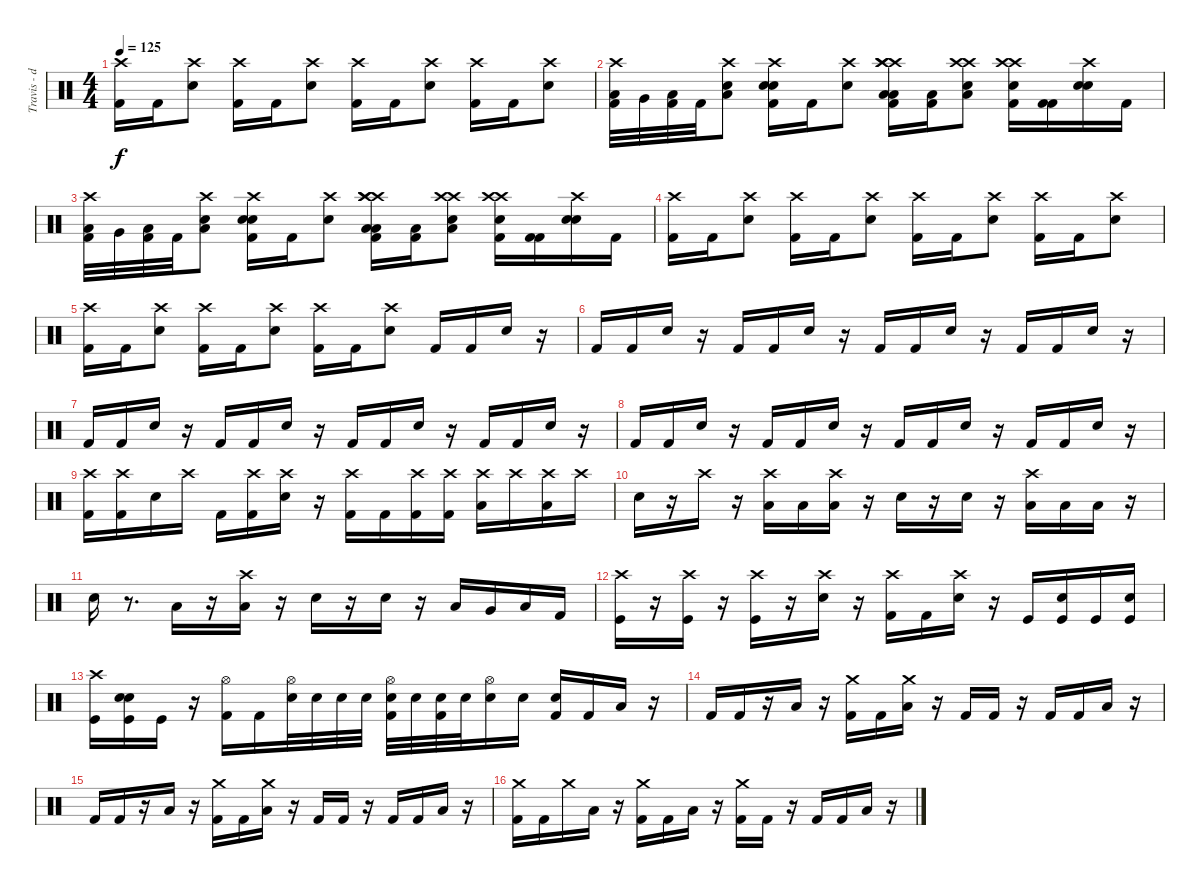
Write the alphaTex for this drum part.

\track ("Travis - drums" "Travis - d") {instrument percussion}
\staff {score}
\articulation defaults
\ts (4 4)
\tempo 125
\clef neutral
\ks c
("Crash high (hit)" "Kick (hit) 2").16{dy f} "Kick (hit) 2".16 ("Crash high (hit)" "Electric Snare (hit)").8 ("Crash high (hit)" "Kick (hit) 2").16 "Kick (hit) 2".16 ("Crash high (hit)" "Snare (hit) 2").8 ("Crash high (hit)" "Kick (hit) 2").16 "Kick (hit) 2".16 ("Crash high (hit)" "Electric Snare (hit)").8 ("Kick (hit) 2" "Crash high (hit)").16 "Kick (hit) 2".16 ("Electric Snare (hit)" "Crash high (hit)").8 |
("Crash high (hit)" "Kick (hit) 2" "Low Floor Tom (hit)").32 "Very Low Tom (hit)".32 ("Kick (hit) 2" "Low Floor Tom (hit)").32 "Kick (hit) 2".32 ("Crash high (hit)" "Electric Snare (hit)" "Low Floor Tom (hit)").8 ("Crash high (hit)" "Kick (hit) 2" "Electric Snare (hit)" "Electric Snare (hit)").16 "Kick (hit) 2".16 ("Crash high (hit)" "Snare (hit) 2").8 ("Crash high (hit)" "Kick (hit) 2" "Crash high (hit)" "Low Floor Tom (hit)" "Low Floor Tom (hit)" "Crash high (hit)").16 ("Kick (hit) 2" "Low Floor Tom (hit)").16 ("Crash high (hit)" "Electric Snare (hit)" "Low Floor Tom (hit)" "Crash high (hit)").8 ("Kick (hit) 2" "Crash high (hit)" "Crash high (hit)" "Electric Snare (hit)").16 ("Kick (hit) 2" "Kick (hit) 2").16 ("Electric Snare (hit)" "Crash high (hit)" "Electric Snare (hit)").16 "Kick (hit) 2".16 |
("Crash high (hit)" "Kick (hit) 2" "Low Floor Tom (hit)").32 "Very Low Tom (hit)".32 ("Kick (hit) 2" "Low Floor Tom (hit)").32 "Kick (hit) 2".32 ("Crash high (hit)" "Electric Snare (hit)" "Low Floor Tom (hit)").8 ("Crash high (hit)" "Kick (hit) 2" "Electric Snare (hit)" "Electric Snare (hit)").16 "Kick (hit) 2".16 ("Crash high (hit)" "Snare (hit) 2").8 ("Crash high (hit)" "Kick (hit) 2" "Crash high (hit)" "Low Floor Tom (hit)" "Low Floor Tom (hit)" "Crash high (hit)").16 ("Kick (hit) 2" "Low Floor Tom (hit)").16 ("Crash high (hit)" "Electric Snare (hit)" "Low Floor Tom (hit)" "Crash high (hit)").8 ("Kick (hit) 2" "Crash high (hit)" "Crash high (hit)" "Electric Snare (hit)").16 ("Kick (hit) 2" "Kick (hit) 2").16 ("Electric Snare (hit)" "Crash high (hit)" "Electric Snare (hit)").16 "Kick (hit) 2".16 |
("Crash high (hit)" "Kick (hit) 2").16 "Kick (hit) 2".16 ("Crash high (hit)" "Electric Snare (hit)").8 ("Crash high (hit)" "Kick (hit) 2").16 "Kick (hit) 2".16 ("Crash high (hit)" "Snare (hit) 2").8 ("Crash high (hit)" "Kick (hit) 2").16 "Kick (hit) 2".16 ("Crash high (hit)" "Electric Snare (hit)").8 ("Kick (hit) 2" "Crash high (hit)").16 "Kick (hit) 2".16 ("Electric Snare (hit)" "Crash high (hit)").8 |
("Crash high (hit)" "Kick (hit) 2").16 "Kick (hit) 2".16 ("Crash high (hit)" "Electric Snare (hit)").8 ("Crash high (hit)" "Kick (hit) 2").16 "Kick (hit) 2".16 ("Crash high (hit)" "Snare (hit) 2").8 ("Crash high (hit)" "Kick (hit) 2").16 "Kick (hit) 2".16 ("Crash high (hit)" "Electric Snare (hit)").8 "Kick (hit) 2".16 "Kick (hit) 2".16 "Electric Snare (hit)".16 r.16 |
"Kick (hit) 2".16 "Kick (hit) 2".16 "Electric Snare (hit)".16 r.16 "Kick (hit) 2".16 "Kick (hit) 2".16 "Snare (hit) 2".16 r.16 "Kick (hit) 2".16 "Kick (hit) 2".16 "Electric Snare (hit)".16 r.16 "Kick (hit) 2".16 "Kick (hit) 2".16 "Electric Snare (hit)".16 r.16 |
"Kick (hit) 2".16 "Kick (hit) 2".16 "Electric Snare (hit)".16 r.16 "Kick (hit) 2".16 "Kick (hit) 2".16 "Snare (hit) 2".16 r.16 "Kick (hit) 2".16 "Kick (hit) 2".16 "Electric Snare (hit)".16 r.16 "Kick (hit) 2".16 "Kick (hit) 2".16 "Electric Snare (hit)".16 r.16 |
"Kick (hit) 2".16 "Kick (hit) 2".16 "Electric Snare (hit)".16 r.16 "Kick (hit) 2".16 "Kick (hit) 2".16 "Snare (hit) 2".16 r.16 "Kick (hit) 2".16 "Kick (hit) 2".16 "Electric Snare (hit)".16 r.16 "Kick (hit) 2".16 "Kick (hit) 2".16 "Electric Snare (hit)".16 r.16 |
("Crash high (hit)" "Kick (hit) 2").16 ("Crash high (hit)" "Kick (hit) 2").16 "Electric Snare (hit)".16 "Crash high (hit)".16 "Kick (hit) 2".16 ("Crash high (hit)" "Kick (hit) 2").16 ("Crash high (hit)" "Electric Snare (hit)").16 r.16 ("Crash high (hit)" "Kick (hit) 2").16 "Kick (hit) 2".16 ("Crash high (hit)" "Kick (hit) 2").16 ("Crash high (hit)" "Kick (hit) 2").16 ("Low Floor Tom (hit)" "Crash high (hit)").16 "Crash high (hit)".16 ("Low Floor Tom (hit)" "Crash high (hit)").16 "Crash high (hit)".16 |
"Electric Snare (hit)".16 r.16 "Crash high (hit)".16 r.16 ("Low Floor Tom (hit)" "Crash high (hit)").16 "Low Floor Tom (hit)".16 ("Low Floor Tom (hit)" "Crash high (hit)").16 r.16 "Electric Snare (hit)".16 r.16 "Electric Snare (hit)".16 r.16 ("Low Floor Tom (hit)" "Crash high (hit)").16 "Low Floor Tom (hit)".16 "Low Floor Tom (hit)".16 r.16 |
"Electric Snare (hit)".16 r.8{d} "Low Floor Tom (hit)".16 r.16 ("Low Floor Tom (hit)" "Crash high (hit)").16 r.16 "Electric Snare (hit)".16 r.16 "Electric Snare (hit)".16 r.16 "Low Tom (hit)".16 "Very Low Tom (hit)".16 "Low Floor Tom (hit)".16 "Kick (hit) 2".16 |
("Kick (hit)" "Crash high (hit)").16 r.16 ("Kick (hit)" "Crash high (hit)").16 r.16 ("Kick (hit)" "Crash high (hit)").16 r.16 ("Electric Snare (hit)" "Crash high (hit)").16 r.16 ("Kick (hit) 2" "Crash high (hit)").16 "Kick (hit) 2".16 ("Electric Snare (hit)" "Crash high (hit)").16 r.16 "Kick (hit)".16 ("Electric Snare (hit)" "Kick (hit)").16 "Kick (hit)".16 ("Electric Snare (hit)" "Kick (hit)").16 |
("Crash high (hit)" "Kick (hit)").16 ("Electric Snare (hit)" "Electric Snare (hit)" "Kick (hit)").16 "Kick (hit)".16 r.16 ("Kick (hit) 2" "Hi-Hat (open)").16 "Kick (hit) 2".16 ("Electric Snare (hit)" "Hi-Hat (open)").32 "Electric Snare (hit)".32 "Electric Snare (hit)".32 "Electric Snare (hit)".32 ("Electric Snare (hit)" "Kick (hit) 2" "Hi-Hat (open)").32 "Electric Snare (hit)".32 ("Electric Snare (hit)" "Kick (hit) 2").32 "Electric Snare (hit)".32 ("Electric Snare (hit)" "Hi-Hat (open)").16 "Electric Snare (hit)".16 ("Electric Snare (hit)" "Kick (hit) 2").16 "Kick (hit) 2".16 "Low Tom (hit)".16 r.16 |
"Kick (hit) 2".16 "Kick (hit) 2".16 r.16 "Low Tom (hit)".16 r.16 ("Kick (hit) 2" "Crash medium (hit)").16 "Kick (hit) 2".16 ("Low Tom (hit)" "Crash medium (hit)").16 r.16 "Kick (hit) 2".16 "Kick (hit) 2".16 r.16 "Kick (hit) 2".16 "Kick (hit) 2".16 "Low Tom (hit)".16 r.16 |
"Kick (hit) 2".16 "Kick (hit) 2".16 r.16 "Low Tom (hit)".16 r.16 ("Crash medium (hit)" "Kick (hit) 2").16 "Kick (hit) 2".16 ("Crash medium (hit)" "Low Tom (hit)").16 r.16 "Kick (hit) 2".16 "Kick (hit) 2".16 r.16 "Kick (hit) 2".16 "Kick (hit) 2".16 "Low Tom (hit)".16 r.16 |
("Kick (hit) 2" "Crash medium (hit)").16 "Kick (hit) 2".16 "Crash medium (hit)".16 "Low Tom (hit)".16 r.16 ("Kick (hit) 2" "Crash medium (hit)").16 "Kick (hit) 2".16 "Low Tom (hit)".16 r.16 ("Kick (hit) 2" "Crash medium (hit)").16 "Kick (hit) 2".16 r.16 "Kick (hit) 2".16 "Kick (hit) 2".16 "Low Tom (hit)".16 r.16
